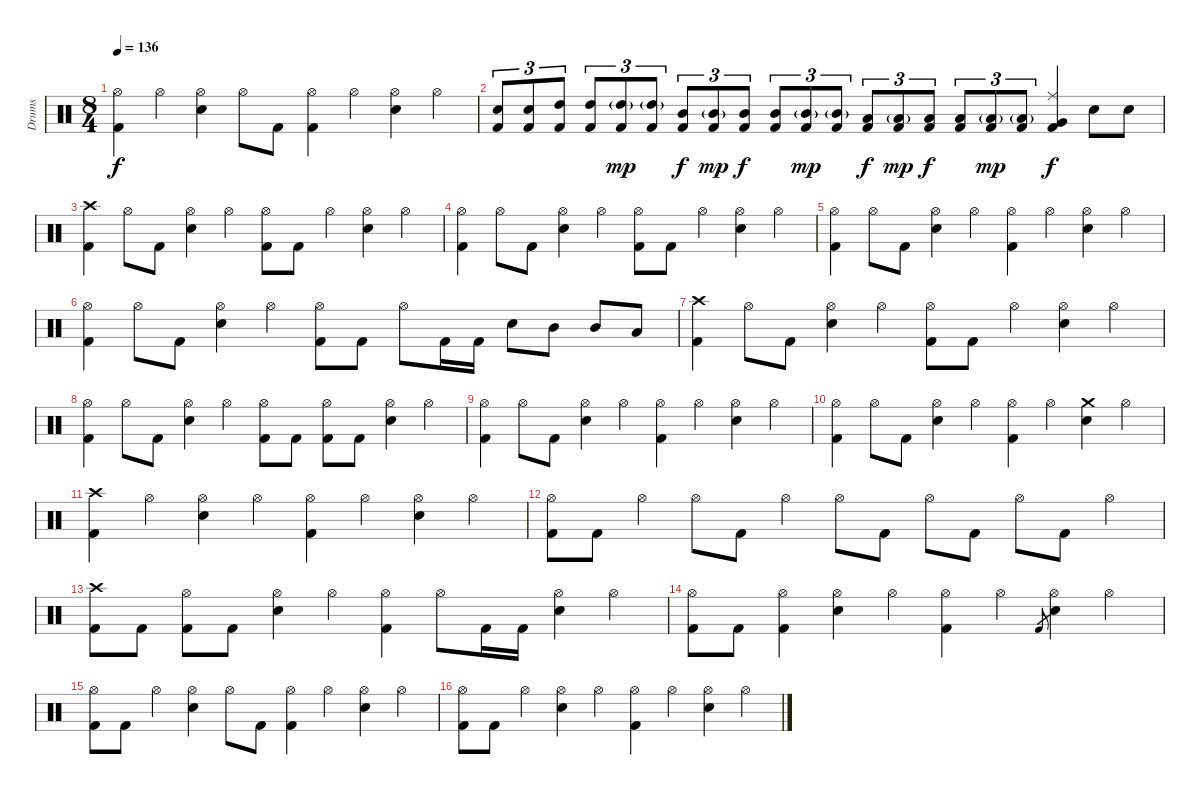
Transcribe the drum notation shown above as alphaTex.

\track ("Drums" "Drums") {instrument percussion}
\staff {score}
\articulation defaults
\ts (8 4)
\tempo 136
\clef neutral
\ks c
("Hi-Hat (open)" "Kick (hit) 2").4{dy f} "Hi-Hat (open)".4 ("Hi-Hat (open)" "Snare (hit) 2").4 "Hi-Hat (open)".8 "Kick (hit) 2".8 ("Hi-Hat (open)" "Kick (hit) 2").4 "Hi-Hat (open)".4 ("Hi-Hat (open)" "Snare (hit) 2").4 "Hi-Hat (open)".4 |
("Snare (hit) 2" "Kick (hit) 2").8{tu (3 2)} ("Snare (hit) 2" "Kick (hit) 2").8{tu (3 2)} ("High Tom (hit)" "Kick (hit) 2").8{tu (3 2)} ("High Tom (hit)" "Kick (hit) 2").8{tu (3 2)} ("High Tom (hit)"{g} "Kick (hit) 2").8{tu (3 2) dy mp} ("High Tom (hit)"{g} "Kick (hit) 2").8{tu (3 2)} ("Mid Tom (hit)" "Kick (hit) 2").8{tu (3 2) dy f} ("Mid Tom (hit)"{g} "Kick (hit) 2").8{tu (3 2) dy mp} ("Mid Tom (hit)" "Kick (hit) 2").8{tu (3 2) dy f} ("Mid Tom (hit)" "Kick (hit) 2").8{tu (3 2)} ("Mid Tom (hit)"{g} "Kick (hit) 2").8{tu (3 2) dy mp} ("Mid Tom (hit)"{g} "Kick (hit) 2").8{tu (3 2)} ("Low Tom (hit)" "Kick (hit) 2").8{tu (3 2) dy f} ("Low Tom (hit)"{g} "Kick (hit) 2").8{tu (3 2) dy mp} ("Low Tom (hit)" "Kick (hit) 2").8{tu (3 2) dy f} ("Low Tom (hit)" "Kick (hit) 2").8{tu (3 2)} ("Low Tom (hit)"{g} "Kick (hit) 2").8{tu (3 2) dy mp} ("Low Tom (hit)"{g} "Kick (hit) 2").8{tu (3 2)} ("Ride (middle)" "Very Low Tom (hit)" "Kick (hit) 2").4{dy f} "Snare (hit) 2".8 "Snare (hit) 2".8 |
("Crash high (hit)" "Kick (hit) 2").4 "Hi-Hat (open)".8 "Kick (hit) 2".8 ("Hi-Hat (open)" "Snare (hit) 2").4 "Hi-Hat (open)".4 ("Hi-Hat (open)" "Kick (hit) 2").8 "Kick (hit) 2".8 "Hi-Hat (open)".4 ("Hi-Hat (open)" "Snare (hit) 2").4 "Hi-Hat (open)".4 |
("Hi-Hat (open)" "Kick (hit) 2").4 "Hi-Hat (open)".8 "Kick (hit) 2".8 ("Hi-Hat (open)" "Snare (hit) 2").4 "Hi-Hat (open)".4 ("Hi-Hat (open)" "Kick (hit) 2").8 "Kick (hit) 2".8 "Hi-Hat (open)".4 ("Hi-Hat (open)" "Snare (hit) 2").4 "Hi-Hat (open)".4 |
("Hi-Hat (open)" "Kick (hit) 2").4 "Hi-Hat (open)".8 "Kick (hit) 2".8 ("Hi-Hat (open)" "Snare (hit) 2").4 "Hi-Hat (open)".4 ("Hi-Hat (open)" "Kick (hit) 2").4 "Hi-Hat (open)".4 ("Hi-Hat (open)" "Snare (hit) 2").4 "Hi-Hat (open)".4 |
("Hi-Hat (open)" "Kick (hit) 2").4 "Hi-Hat (open)".8 "Kick (hit) 2".8 ("Hi-Hat (open)" "Snare (hit) 2").4 "Hi-Hat (open)".4 ("Hi-Hat (open)" "Kick (hit) 2").8 "Kick (hit) 2".8 "Hi-Hat (open)".8 "Kick (hit) 2".16 "Kick (hit) 2".16 "Snare (hit) 2".8 "Mid Tom (hit)".8 "Mid Tom (hit)".8 "Low Tom (hit)".8 |
("Crash high (hit)" "Kick (hit) 2").4 "Hi-Hat (open)".8 "Kick (hit) 2".8 ("Hi-Hat (open)" "Snare (hit) 2").4 "Hi-Hat (open)".4 ("Hi-Hat (open)" "Kick (hit) 2").8 "Kick (hit) 2".8 "Hi-Hat (open)".4 ("Hi-Hat (open)" "Snare (hit) 2").4 "Hi-Hat (open)".4 |
("Hi-Hat (open)" "Kick (hit) 2").4 "Hi-Hat (open)".8 "Kick (hit) 2".8 ("Hi-Hat (open)" "Snare (hit) 2").4 "Hi-Hat (open)".4 ("Hi-Hat (open)" "Kick (hit) 2").8 "Kick (hit) 2".8 ("Hi-Hat (open)" "Kick (hit) 2").8 "Kick (hit) 2".8 ("Hi-Hat (open)" "Snare (hit) 2").4 "Hi-Hat (open)".4 |
("Hi-Hat (open)" "Kick (hit) 2").4 "Hi-Hat (open)".8 "Kick (hit) 2".8 ("Hi-Hat (open)" "Snare (hit) 2").4 "Hi-Hat (open)".4 ("Hi-Hat (open)" "Kick (hit) 2").4 "Hi-Hat (open)".4 ("Hi-Hat (open)" "Snare (hit) 2").4 "Hi-Hat (open)".4 |
("Hi-Hat (open)" "Kick (hit) 2").4 "Hi-Hat (open)".8 "Kick (hit) 2".8 ("Hi-Hat (open)" "Snare (hit) 2").4 "Hi-Hat (open)".4 ("Hi-Hat (open)" "Kick (hit) 2").4 "Hi-Hat (open)".4 ("Crash medium (hit)" "Snare (hit) 2").4 "Hi-Hat (open)".4 |
("Crash high (hit)" "Kick (hit) 2").4 "Hi-Hat (open)".4 ("Hi-Hat (open)" "Snare (hit) 2").4 "Hi-Hat (open)".4 ("Hi-Hat (open)" "Kick (hit) 2").4 "Hi-Hat (open)".4 ("Hi-Hat (open)" "Snare (hit) 2").4 "Hi-Hat (open)".4 |
("Hi-Hat (open)" "Kick (hit) 2").8 "Kick (hit) 2".8 "Hi-Hat (open)".4 "Hi-Hat (open)".8 "Kick (hit) 2".8 "Hi-Hat (open)".4 "Hi-Hat (open)".8 "Kick (hit) 2".8 "Hi-Hat (open)".8 "Kick (hit) 2".8 "Hi-Hat (open)".8 "Kick (hit) 2".8 "Hi-Hat (open)".4 |
("Crash high (hit)" "Kick (hit) 2").8 "Kick (hit) 2".8 ("Hi-Hat (open)" "Kick (hit) 2").8 "Kick (hit) 2".8 ("Hi-Hat (open)" "Snare (hit) 2").4 "Hi-Hat (open)".4 ("Hi-Hat (open)" "Kick (hit) 2").4 "Hi-Hat (open)".8 "Kick (hit) 2".16 "Kick (hit) 2".16 ("Hi-Hat (open)" "Snare (hit) 2").4 "Hi-Hat (open)".4 |
("Hi-Hat (open)" "Kick (hit) 2").8 "Kick (hit) 2".8 ("Hi-Hat (open)" "Kick (hit) 2").4 ("Hi-Hat (open)" "Snare (hit) 2").4 "Hi-Hat (open)".4 ("Hi-Hat (open)" "Kick (hit) 2").4 "Hi-Hat (open)".4 "Kick (hit) 2".8{gr} ("Hi-Hat (open)" "Snare (hit) 2").4 "Hi-Hat (open)".4 |
("Hi-Hat (open)" "Kick (hit) 2").8 "Kick (hit) 2".8 "Hi-Hat (open)".4 ("Hi-Hat (open)" "Snare (hit) 2").4 "Hi-Hat (open)".8 "Kick (hit) 2".8 ("Hi-Hat (open)" "Kick (hit) 2").4 "Hi-Hat (open)".4 ("Hi-Hat (open)" "Snare (hit) 2").4 "Hi-Hat (open)".4 |
("Hi-Hat (open)" "Kick (hit) 2").8 "Kick (hit) 2".8 "Hi-Hat (open)".4 ("Hi-Hat (open)" "Snare (hit) 2").4 "Hi-Hat (open)".4 ("Hi-Hat (open)" "Kick (hit) 2").4 "Hi-Hat (open)".4 ("Hi-Hat (open)" "Snare (hit) 2").4 "Hi-Hat (open)".4
